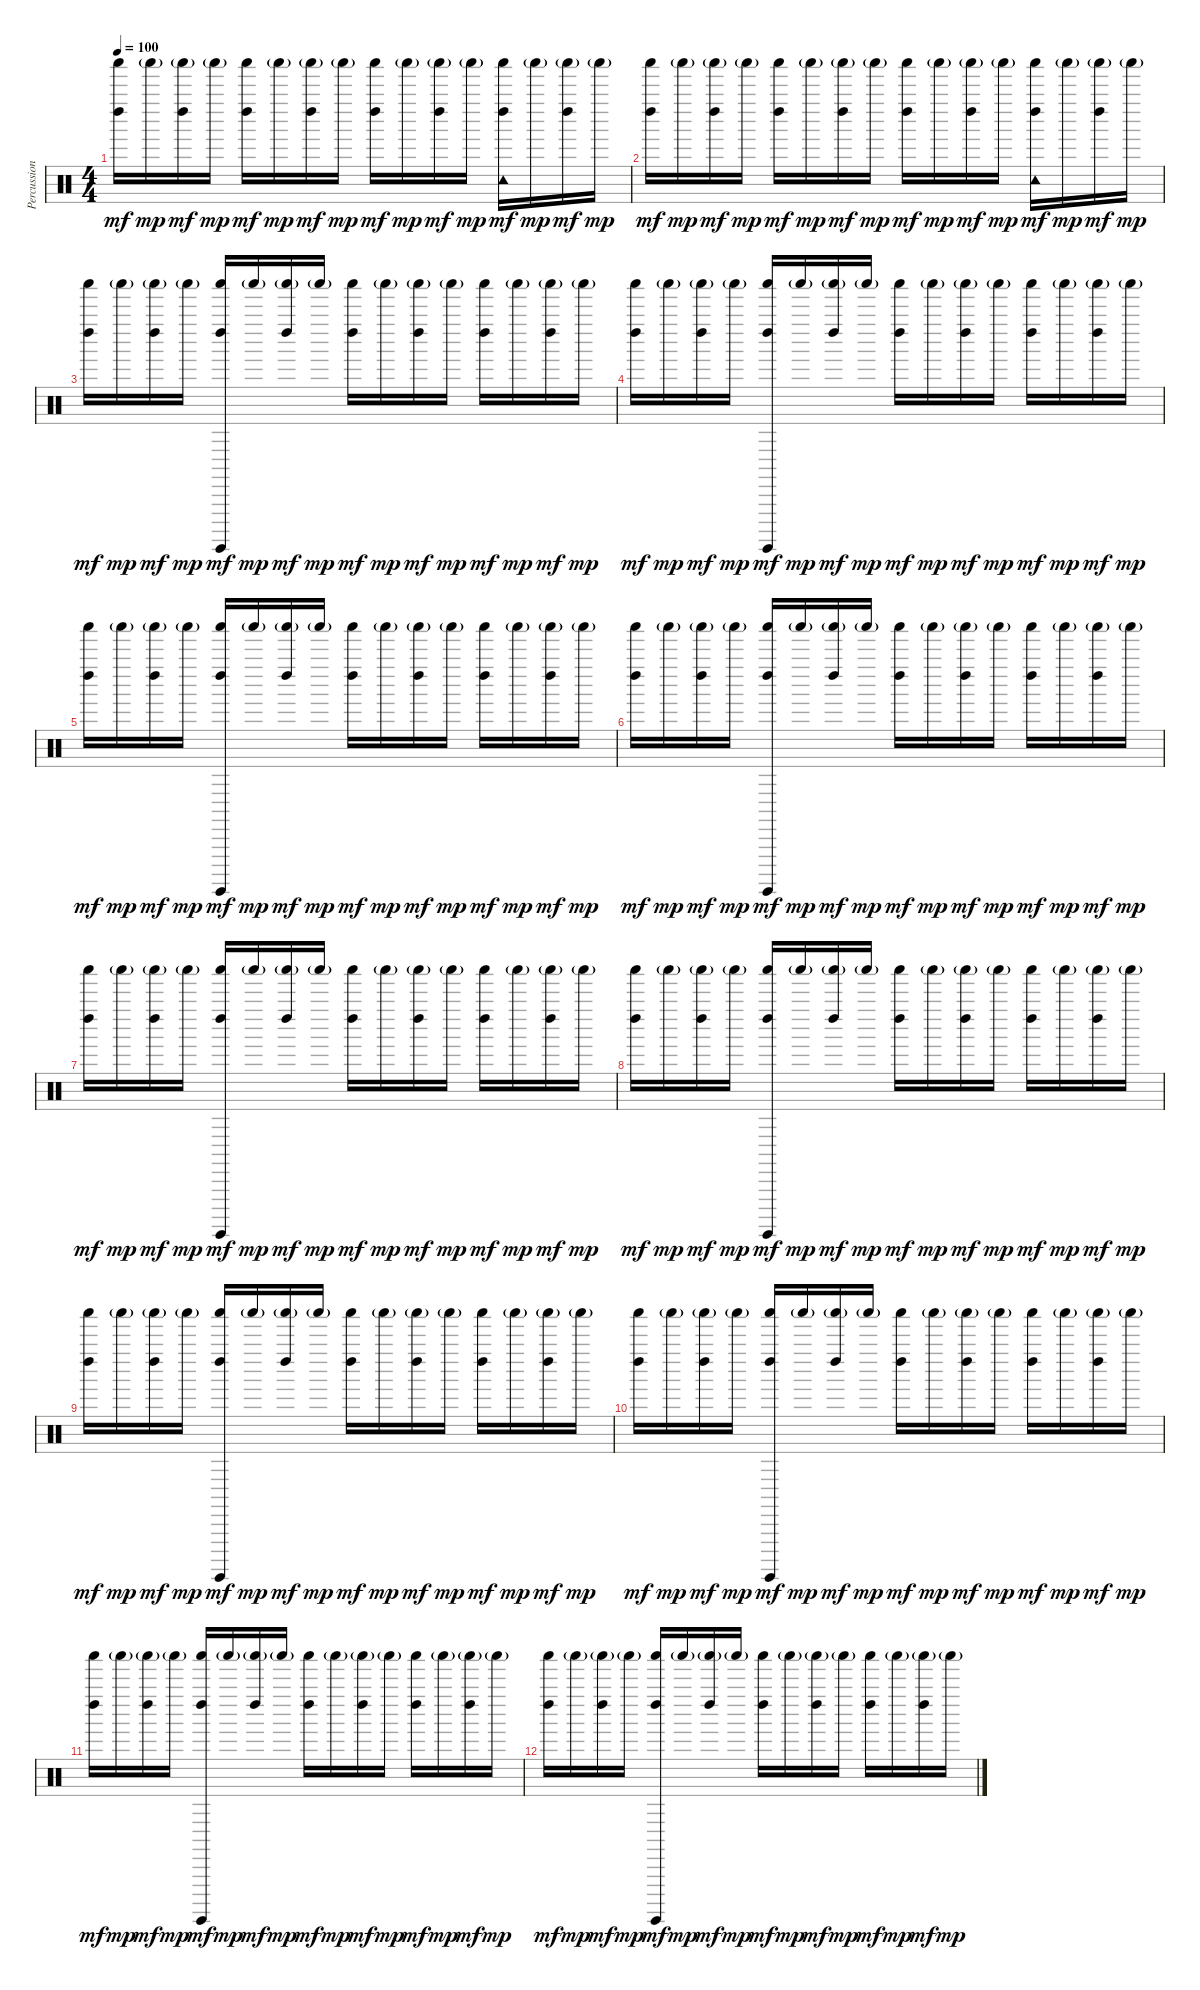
\track ("Percussion" "Percussion") {instrument percussion}
\staff {score}
\articulation defaults
\ts (4 4)
\tempo 100
\clef neutral
\ks c
("Left Maraca (hit)" "Shaker (hit)").16{dy mf} "Shaker (hit)"{g}.16{dy mp} ("Left Maraca (hit)" "Shaker (hit)"{g}).16{dy mf} "Shaker (hit)"{g}.16{dy mp} ("Left Maraca (hit)" "Shaker (hit)").16{dy mf} "Shaker (hit)"{g}.16{dy mp} ("Left Maraca (hit)" "Shaker (hit)"{g}).16{dy mf} "Shaker (hit)"{g}.16{dy mp} ("Left Maraca (hit)" "Shaker (hit)").16{dy mf} "Shaker (hit)"{g}.16{dy mp} ("Left Maraca (hit)" "Shaker (hit)"{g}).16{dy mf} "Shaker (hit)"{g}.16{dy mp} ("Tambourine (hit)" "Left Maraca (hit)" "Shaker (hit)").16{dy mf} "Shaker (hit)"{g}.16{dy mp} ("Left Maraca (hit)" "Shaker (hit)"{g}).16{dy mf} "Shaker (hit)"{g}.16{dy mp} |
("Left Maraca (hit)" "Shaker (hit)").16{dy mf} "Shaker (hit)"{g}.16{dy mp} ("Left Maraca (hit)" "Shaker (hit)"{g}).16{dy mf} "Shaker (hit)"{g}.16{dy mp} ("Left Maraca (hit)" "Shaker (hit)").16{dy mf} "Shaker (hit)"{g}.16{dy mp} ("Left Maraca (hit)" "Shaker (hit)"{g}).16{dy mf} "Shaker (hit)"{g}.16{dy mp} ("Left Maraca (hit)" "Shaker (hit)").16{dy mf} "Shaker (hit)"{g}.16{dy mp} ("Left Maraca (hit)" "Shaker (hit)"{g}).16{dy mf} "Shaker (hit)"{g}.16{dy mp} ("Tambourine (hit)" "Left Maraca (hit)" "Shaker (hit)").16{dy mf} "Shaker (hit)"{g}.16{dy mp} ("Left Maraca (hit)" "Shaker (hit)"{g}).16{dy mf} "Shaker (hit)"{g}.16{dy mp} |
("Left Maraca (hit)" "Shaker (hit)").16{dy mf} "Shaker (hit)"{g}.16{dy mp} ("Left Maraca (hit)" "Shaker (hit)"{g}).16{dy mf} "Shaker (hit)"{g}.16{dy mp} ("Surdo (hit)" "Left Maraca (hit)" "Shaker (hit)").16{dy mf} "Shaker (hit)"{g}.16{dy mp} ("Left Maraca (hit)" "Shaker (hit)"{g}).16{dy mf} "Shaker (hit)"{g}.16{dy mp} ("Left Maraca (hit)" "Shaker (hit)").16{dy mf} "Shaker (hit)"{g}.16{dy mp} ("Left Maraca (hit)" "Shaker (hit)"{g}).16{dy mf} "Shaker (hit)"{g}.16{dy mp} ("Left Maraca (hit)" "Shaker (hit)").16{dy mf} "Shaker (hit)"{g}.16{dy mp} ("Left Maraca (hit)" "Shaker (hit)"{g}).16{dy mf} "Shaker (hit)"{g}.16{dy mp} |
("Left Maraca (hit)" "Shaker (hit)").16{dy mf} "Shaker (hit)"{g}.16{dy mp} ("Left Maraca (hit)" "Shaker (hit)"{g}).16{dy mf} "Shaker (hit)"{g}.16{dy mp} ("Surdo (hit)" "Left Maraca (hit)" "Shaker (hit)").16{dy mf} "Shaker (hit)"{g}.16{dy mp} ("Left Maraca (hit)" "Shaker (hit)"{g}).16{dy mf} "Shaker (hit)"{g}.16{dy mp} ("Left Maraca (hit)" "Shaker (hit)").16{dy mf} "Shaker (hit)"{g}.16{dy mp} ("Left Maraca (hit)" "Shaker (hit)"{g}).16{dy mf} "Shaker (hit)"{g}.16{dy mp} ("Left Maraca (hit)" "Shaker (hit)").16{dy mf} "Shaker (hit)"{g}.16{dy mp} ("Left Maraca (hit)" "Shaker (hit)"{g}).16{dy mf} "Shaker (hit)"{g}.16{dy mp} |
("Left Maraca (hit)" "Shaker (hit)").16{dy mf} "Shaker (hit)"{g}.16{dy mp} ("Left Maraca (hit)" "Shaker (hit)"{g}).16{dy mf} "Shaker (hit)"{g}.16{dy mp} ("Surdo (hit)" "Left Maraca (hit)" "Shaker (hit)").16{dy mf} "Shaker (hit)"{g}.16{dy mp} ("Left Maraca (hit)" "Shaker (hit)"{g}).16{dy mf} "Shaker (hit)"{g}.16{dy mp} ("Left Maraca (hit)" "Shaker (hit)").16{dy mf} "Shaker (hit)"{g}.16{dy mp} ("Left Maraca (hit)" "Shaker (hit)"{g}).16{dy mf} "Shaker (hit)"{g}.16{dy mp} ("Left Maraca (hit)" "Shaker (hit)").16{dy mf} "Shaker (hit)"{g}.16{dy mp} ("Left Maraca (hit)" "Shaker (hit)"{g}).16{dy mf} "Shaker (hit)"{g}.16{dy mp} |
("Left Maraca (hit)" "Shaker (hit)").16{dy mf} "Shaker (hit)"{g}.16{dy mp} ("Left Maraca (hit)" "Shaker (hit)"{g}).16{dy mf} "Shaker (hit)"{g}.16{dy mp} ("Surdo (hit)" "Left Maraca (hit)" "Shaker (hit)").16{dy mf} "Shaker (hit)"{g}.16{dy mp} ("Left Maraca (hit)" "Shaker (hit)"{g}).16{dy mf} "Shaker (hit)"{g}.16{dy mp} ("Left Maraca (hit)" "Shaker (hit)").16{dy mf} "Shaker (hit)"{g}.16{dy mp} ("Left Maraca (hit)" "Shaker (hit)"{g}).16{dy mf} "Shaker (hit)"{g}.16{dy mp} ("Left Maraca (hit)" "Shaker (hit)").16{dy mf} "Shaker (hit)"{g}.16{dy mp} ("Left Maraca (hit)" "Shaker (hit)"{g}).16{dy mf} "Shaker (hit)"{g}.16{dy mp} |
("Left Maraca (hit)" "Shaker (hit)").16{dy mf} "Shaker (hit)"{g}.16{dy mp} ("Left Maraca (hit)" "Shaker (hit)"{g}).16{dy mf} "Shaker (hit)"{g}.16{dy mp} ("Surdo (hit)" "Left Maraca (hit)" "Shaker (hit)").16{dy mf} "Shaker (hit)"{g}.16{dy mp} ("Left Maraca (hit)" "Shaker (hit)"{g}).16{dy mf} "Shaker (hit)"{g}.16{dy mp} ("Left Maraca (hit)" "Shaker (hit)").16{dy mf} "Shaker (hit)"{g}.16{dy mp} ("Left Maraca (hit)" "Shaker (hit)"{g}).16{dy mf} "Shaker (hit)"{g}.16{dy mp} ("Left Maraca (hit)" "Shaker (hit)").16{dy mf} "Shaker (hit)"{g}.16{dy mp} ("Left Maraca (hit)" "Shaker (hit)"{g}).16{dy mf} "Shaker (hit)"{g}.16{dy mp} |
("Left Maraca (hit)" "Shaker (hit)").16{dy mf} "Shaker (hit)"{g}.16{dy mp} ("Left Maraca (hit)" "Shaker (hit)"{g}).16{dy mf} "Shaker (hit)"{g}.16{dy mp} ("Surdo (hit)" "Left Maraca (hit)" "Shaker (hit)").16{dy mf} "Shaker (hit)"{g}.16{dy mp} ("Left Maraca (hit)" "Shaker (hit)"{g}).16{dy mf} "Shaker (hit)"{g}.16{dy mp} ("Left Maraca (hit)" "Shaker (hit)").16{dy mf} "Shaker (hit)"{g}.16{dy mp} ("Left Maraca (hit)" "Shaker (hit)"{g}).16{dy mf} "Shaker (hit)"{g}.16{dy mp} ("Left Maraca (hit)" "Shaker (hit)").16{dy mf} "Shaker (hit)"{g}.16{dy mp} ("Left Maraca (hit)" "Shaker (hit)"{g}).16{dy mf} "Shaker (hit)"{g}.16{dy mp} |
("Left Maraca (hit)" "Shaker (hit)").16{dy mf} "Shaker (hit)"{g}.16{dy mp} ("Left Maraca (hit)" "Shaker (hit)"{g}).16{dy mf} "Shaker (hit)"{g}.16{dy mp} ("Surdo (hit)" "Left Maraca (hit)" "Shaker (hit)").16{dy mf} "Shaker (hit)"{g}.16{dy mp} ("Left Maraca (hit)" "Shaker (hit)"{g}).16{dy mf} "Shaker (hit)"{g}.16{dy mp} ("Left Maraca (hit)" "Shaker (hit)").16{dy mf} "Shaker (hit)"{g}.16{dy mp} ("Left Maraca (hit)" "Shaker (hit)"{g}).16{dy mf} "Shaker (hit)"{g}.16{dy mp} ("Left Maraca (hit)" "Shaker (hit)").16{dy mf} "Shaker (hit)"{g}.16{dy mp} ("Left Maraca (hit)" "Shaker (hit)"{g}).16{dy mf} "Shaker (hit)"{g}.16{dy mp} |
("Left Maraca (hit)" "Shaker (hit)").16{dy mf} "Shaker (hit)"{g}.16{dy mp} ("Left Maraca (hit)" "Shaker (hit)"{g}).16{dy mf} "Shaker (hit)"{g}.16{dy mp} ("Surdo (hit)" "Left Maraca (hit)" "Shaker (hit)").16{dy mf} "Shaker (hit)"{g}.16{dy mp} ("Left Maraca (hit)" "Shaker (hit)"{g}).16{dy mf} "Shaker (hit)"{g}.16{dy mp} ("Left Maraca (hit)" "Shaker (hit)").16{dy mf} "Shaker (hit)"{g}.16{dy mp} ("Left Maraca (hit)" "Shaker (hit)"{g}).16{dy mf} "Shaker (hit)"{g}.16{dy mp} ("Left Maraca (hit)" "Shaker (hit)").16{dy mf} "Shaker (hit)"{g}.16{dy mp} ("Left Maraca (hit)" "Shaker (hit)"{g}).16{dy mf} "Shaker (hit)"{g}.16{dy mp} |
("Left Maraca (hit)" "Shaker (hit)").16{dy mf} "Shaker (hit)"{g}.16{dy mp} ("Left Maraca (hit)" "Shaker (hit)"{g}).16{dy mf} "Shaker (hit)"{g}.16{dy mp} ("Surdo (hit)" "Left Maraca (hit)" "Shaker (hit)").16{dy mf} "Shaker (hit)"{g}.16{dy mp} ("Left Maraca (hit)" "Shaker (hit)"{g}).16{dy mf} "Shaker (hit)"{g}.16{dy mp} ("Left Maraca (hit)" "Shaker (hit)").16{dy mf} "Shaker (hit)"{g}.16{dy mp} ("Left Maraca (hit)" "Shaker (hit)"{g}).16{dy mf} "Shaker (hit)"{g}.16{dy mp} ("Left Maraca (hit)" "Shaker (hit)").16{dy mf} "Shaker (hit)"{g}.16{dy mp} ("Left Maraca (hit)" "Shaker (hit)"{g}).16{dy mf} "Shaker (hit)"{g}.16{dy mp} |
("Left Maraca (hit)" "Shaker (hit)").16{dy mf} "Shaker (hit)"{g}.16{dy mp} ("Left Maraca (hit)" "Shaker (hit)"{g}).16{dy mf} "Shaker (hit)"{g}.16{dy mp} ("Surdo (hit)" "Left Maraca (hit)" "Shaker (hit)").16{dy mf} "Shaker (hit)"{g}.16{dy mp} ("Left Maraca (hit)" "Shaker (hit)"{g}).16{dy mf} "Shaker (hit)"{g}.16{dy mp} ("Left Maraca (hit)" "Shaker (hit)").16{dy mf} "Shaker (hit)"{g}.16{dy mp} ("Left Maraca (hit)" "Shaker (hit)"{g}).16{dy mf} "Shaker (hit)"{g}.16{dy mp} ("Left Maraca (hit)" "Shaker (hit)").16{dy mf} "Shaker (hit)"{g}.16{dy mp} ("Left Maraca (hit)" "Shaker (hit)"{g}).16{dy mf} "Shaker (hit)"{g}.16{dy mp}
